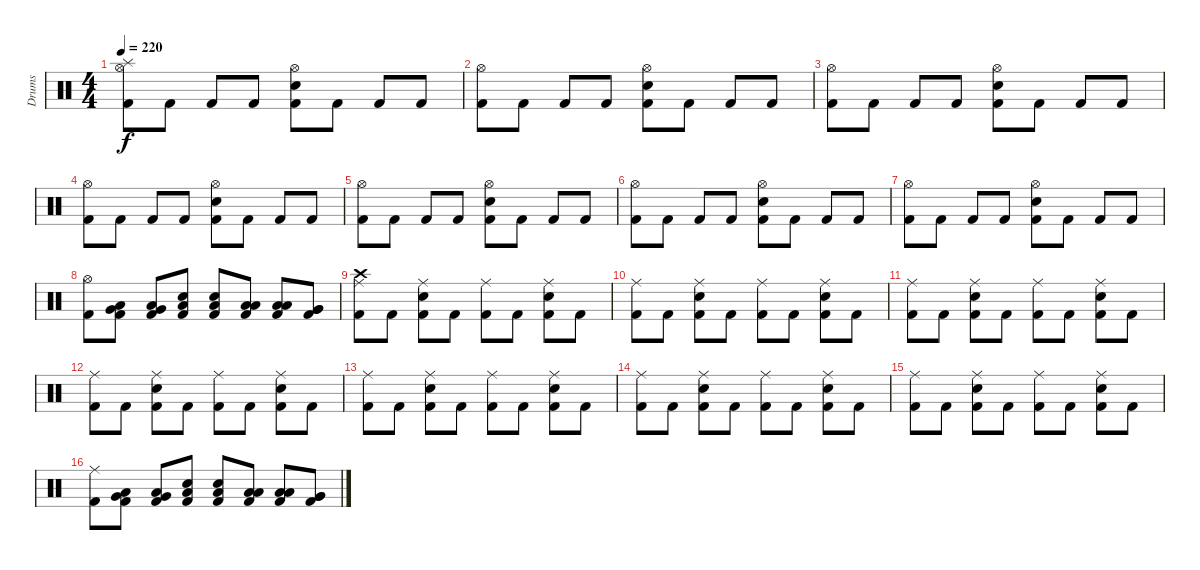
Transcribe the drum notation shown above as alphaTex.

\track ("Drums" "Drums") {instrument percussion}
\staff {score}
\articulation defaults
\ts (4 4)
\tempo 220
\clef neutral
\ks c
("Splash (hit)" "Hi-Hat (open)" "Kick (hit) 2").8{dy f} "Kick (hit) 2".8 "Kick (hit) 2".8 "Kick (hit) 2".8 ("Electric Snare (hit)" "Hi-Hat (open)" "Kick (hit) 2").8 "Kick (hit) 2".8 "Kick (hit) 2".8 "Kick (hit) 2".8 |
("Hi-Hat (open)" "Kick (hit) 2").8 "Kick (hit) 2".8 "Kick (hit) 2".8 "Kick (hit) 2".8 ("Electric Snare (hit)" "Hi-Hat (open)" "Kick (hit) 2").8 "Kick (hit) 2".8 "Kick (hit) 2".8 "Kick (hit) 2".8 |
("Hi-Hat (open)" "Kick (hit) 2").8 "Kick (hit) 2".8 "Kick (hit) 2".8 "Kick (hit) 2".8 ("Electric Snare (hit)" "Hi-Hat (open)" "Kick (hit) 2").8 "Kick (hit) 2".8 "Kick (hit) 2".8 "Kick (hit) 2".8 |
("Hi-Hat (open)" "Kick (hit) 2").8 "Kick (hit) 2".8 "Kick (hit) 2".8 "Kick (hit) 2".8 ("Electric Snare (hit)" "Hi-Hat (open)" "Kick (hit) 2").8 "Kick (hit) 2".8 "Kick (hit) 2".8 "Kick (hit) 2".8 |
("Hi-Hat (open)" "Kick (hit) 2").8 "Kick (hit) 2".8 "Kick (hit) 2".8 "Kick (hit) 2".8 ("Electric Snare (hit)" "Hi-Hat (open)" "Kick (hit) 2").8 "Kick (hit) 2".8 "Kick (hit) 2".8 "Kick (hit) 2".8 |
("Hi-Hat (open)" "Kick (hit) 2").8 "Kick (hit) 2".8 "Kick (hit) 2".8 "Kick (hit) 2".8 ("Electric Snare (hit)" "Hi-Hat (open)" "Kick (hit) 2").8 "Kick (hit) 2".8 "Kick (hit) 2".8 "Kick (hit) 2".8 |
("Hi-Hat (open)" "Kick (hit) 2").8 "Kick (hit) 2".8 "Kick (hit) 2".8 "Kick (hit) 2".8 ("Electric Snare (hit)" "Hi-Hat (open)" "Kick (hit) 2").8 "Kick (hit) 2".8 "Kick (hit) 2".8 "Kick (hit) 2".8 |
("Hi-Hat (open)" "Kick (hit) 2").8 ("Low Tom (hit)" "Very Low Tom (hit)" "Kick (hit) 2").8 ("Low Tom (hit)" "Very Low Tom (hit)" "Kick (hit) 2").8 ("Electric Snare (hit)" "Low Tom (hit)" "Kick (hit) 2").8 ("Electric Snare (hit)" "Low Tom (hit)" "Kick (hit) 2").8 ("Low Tom (hit)" "Low Tom (hit)" "Kick (hit) 2").8 ("Low Tom (hit)" "Low Tom (hit)" "Kick (hit) 2").8 ("Very Low Tom (hit)" "Very Low Tom (hit)" "Kick (hit) 2").8 |
("Crash high (hit)" "Ride (middle)" "Kick (hit) 2").8 "Kick (hit) 2".8 ("Electric Snare (hit)" "Ride (middle)" "Kick (hit) 2").8 "Kick (hit) 2".8 ("Ride (middle)" "Kick (hit) 2").8 "Kick (hit) 2".8 ("Electric Snare (hit)" "Ride (middle)" "Kick (hit) 2").8 "Kick (hit) 2".8 |
("Ride (middle)" "Kick (hit) 2").8 "Kick (hit) 2".8 ("Electric Snare (hit)" "Ride (middle)" "Kick (hit) 2").8 "Kick (hit) 2".8 ("Ride (middle)" "Kick (hit) 2").8 "Kick (hit) 2".8 ("Electric Snare (hit)" "Ride (middle)" "Kick (hit) 2").8 "Kick (hit) 2".8 |
("Ride (middle)" "Kick (hit) 2").8 "Kick (hit) 2".8 ("Electric Snare (hit)" "Ride (middle)" "Kick (hit) 2").8 "Kick (hit) 2".8 ("Ride (middle)" "Kick (hit) 2").8 "Kick (hit) 2".8 ("Electric Snare (hit)" "Ride (middle)" "Kick (hit) 2").8 "Kick (hit) 2".8 |
("Ride (middle)" "Kick (hit) 2").8 "Kick (hit) 2".8 ("Electric Snare (hit)" "Ride (middle)" "Kick (hit) 2").8 "Kick (hit) 2".8 ("Ride (middle)" "Kick (hit) 2").8 "Kick (hit) 2".8 ("Electric Snare (hit)" "Ride (middle)" "Kick (hit) 2").8 "Kick (hit) 2".8 |
("Ride (middle)" "Kick (hit) 2").8 "Kick (hit) 2".8 ("Electric Snare (hit)" "Ride (middle)" "Kick (hit) 2").8 "Kick (hit) 2".8 ("Ride (middle)" "Kick (hit) 2").8 "Kick (hit) 2".8 ("Electric Snare (hit)" "Ride (middle)" "Kick (hit) 2").8 "Kick (hit) 2".8 |
("Ride (middle)" "Kick (hit) 2").8 "Kick (hit) 2".8 ("Electric Snare (hit)" "Ride (middle)" "Kick (hit) 2").8 "Kick (hit) 2".8 ("Ride (middle)" "Kick (hit) 2").8 "Kick (hit) 2".8 ("Electric Snare (hit)" "Ride (middle)" "Kick (hit) 2").8 "Kick (hit) 2".8 |
("Ride (middle)" "Kick (hit) 2").8 "Kick (hit) 2".8 ("Electric Snare (hit)" "Ride (middle)" "Kick (hit) 2").8 "Kick (hit) 2".8 ("Ride (middle)" "Kick (hit) 2").8 "Kick (hit) 2".8 ("Electric Snare (hit)" "Ride (middle)" "Kick (hit) 2").8 "Kick (hit) 2".8 |
("Ride (middle)" "Kick (hit) 2").8 ("Low Tom (hit)" "Very Low Tom (hit)" "Kick (hit) 2").8 ("Low Tom (hit)" "Very Low Tom (hit)" "Kick (hit) 2").8 ("Electric Snare (hit)" "Low Tom (hit)" "Kick (hit) 2").8 ("Electric Snare (hit)" "Low Tom (hit)" "Kick (hit) 2").8 ("Low Tom (hit)" "Low Tom (hit)" "Kick (hit) 2").8 ("Low Tom (hit)" "Low Tom (hit)" "Kick (hit) 2").8 ("Very Low Tom (hit)" "Very Low Tom (hit)" "Kick (hit) 2").8
